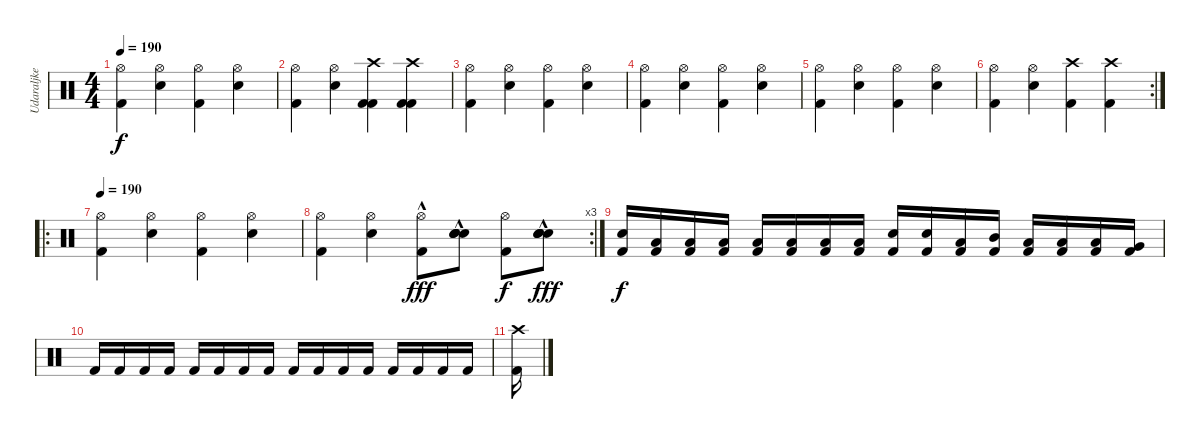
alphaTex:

\track ("Udaraljke" "Udaraljke") {instrument percussion}
\staff {score}
\articulation defaults
\ts (4 4)
\tempo 190
\clef neutral
\ks c
("Kick (hit) 2" "Hi-Hat (open)").4{dy f} ("Electric Snare (hit)" "Hi-Hat (open)").4 ("Kick (hit) 2" "Hi-Hat (open)").4 ("Electric Snare (hit)" "Hi-Hat (open)").4 |
("Kick (hit) 2" "Hi-Hat (open)").4 ("Electric Snare (hit)" "Hi-Hat (open)").4 ("Kick (hit) 2" "Kick (hit) 2" "Crash high (hit)").4 ("Kick (hit) 2" "Kick (hit) 2" "Crash high (hit)").4 |
("Kick (hit) 2" "Hi-Hat (open)").4 ("Electric Snare (hit)" "Hi-Hat (open)").4 ("Kick (hit) 2" "Hi-Hat (open)").4 ("Electric Snare (hit)" "Hi-Hat (open)").4 |
("Kick (hit) 2" "Hi-Hat (open)").4 ("Electric Snare (hit)" "Hi-Hat (open)").4 ("Kick (hit) 2" "Hi-Hat (open)").4 ("Electric Snare (hit)" "Hi-Hat (open)").4 |
("Kick (hit) 2" "Hi-Hat (open)").4 ("Electric Snare (hit)" "Hi-Hat (open)").4 ("Kick (hit) 2" "Hi-Hat (open)").4 ("Electric Snare (hit)" "Hi-Hat (open)").4 |
\rc 2
("Kick (hit) 2" "Hi-Hat (open)").4 ("Electric Snare (hit)" "Hi-Hat (open)").4 ("Kick (hit) 2" "Crash high (hit)").4 ("Kick (hit) 2" "Crash high (hit)").4 |
\ro
\tempo 190
("Kick (hit) 2" "Hi-Hat (open)").4 ("Electric Snare (hit)" "Hi-Hat (open)").4 ("Kick (hit) 2" "Hi-Hat (open)").4 ("Electric Snare (hit)" "Hi-Hat (open)").4 |
\rc 3
("Kick (hit) 2" "Hi-Hat (open)").4 ("Electric Snare (hit)" "Hi-Hat (open)").4 ("Kick (hit) 2"{hac} "Hi-Hat (open)").8{dy fff} ("Electric Snare (hit)"{hac} "Electric Snare (hit)" "Electric Snare (hit)" "Electric Snare (hit)").8 ("Kick (hit) 2" "Hi-Hat (open)").8{dy f} ("Electric Snare (hit)"{hac} "Electric Snare (hit)" "Electric Snare (hit)" "Electric Snare (hit)").8{dy fff} |
("Electric Snare (hit)" "Kick (hit) 2").16{dy f} ("Low Tom (hit)" "Kick (hit) 2").16 ("Low Tom (hit)" "Kick (hit) 2").16 ("Low Tom (hit)" "Kick (hit) 2").16 ("Low Tom (hit)" "Kick (hit) 2").16 ("Low Tom (hit)" "Kick (hit) 2").16 ("Low Tom (hit)" "Kick (hit) 2").16 ("Low Tom (hit)" "Kick (hit) 2").16 ("Electric Snare (hit)" "Kick (hit) 2").16 ("Electric Snare (hit)" "Kick (hit) 2").16 ("Low Tom (hit)" "Kick (hit) 2").16 ("Mid Tom (hit)" "Kick (hit) 2").16 ("Low Tom (hit)" "Kick (hit) 2").16 ("Low Tom (hit)" "Kick (hit) 2").16 ("Low Tom (hit)" "Kick (hit) 2").16 ("Very Low Tom (hit)" "Kick (hit) 2").16 |
"Kick (hit) 2".16 "Kick (hit) 2".16 "Kick (hit) 2".16 "Kick (hit) 2".16 "Kick (hit) 2".16 "Kick (hit) 2".16 "Kick (hit) 2".16 "Kick (hit) 2".16 "Kick (hit) 2".16 "Kick (hit) 2".16 "Kick (hit) 2".16 "Kick (hit) 2".16 "Kick (hit) 2".16 "Kick (hit) 2".16 "Kick (hit) 2".16 "Kick (hit) 2".16 |
("Crash high (hit)" "Kick (hit) 2").16
